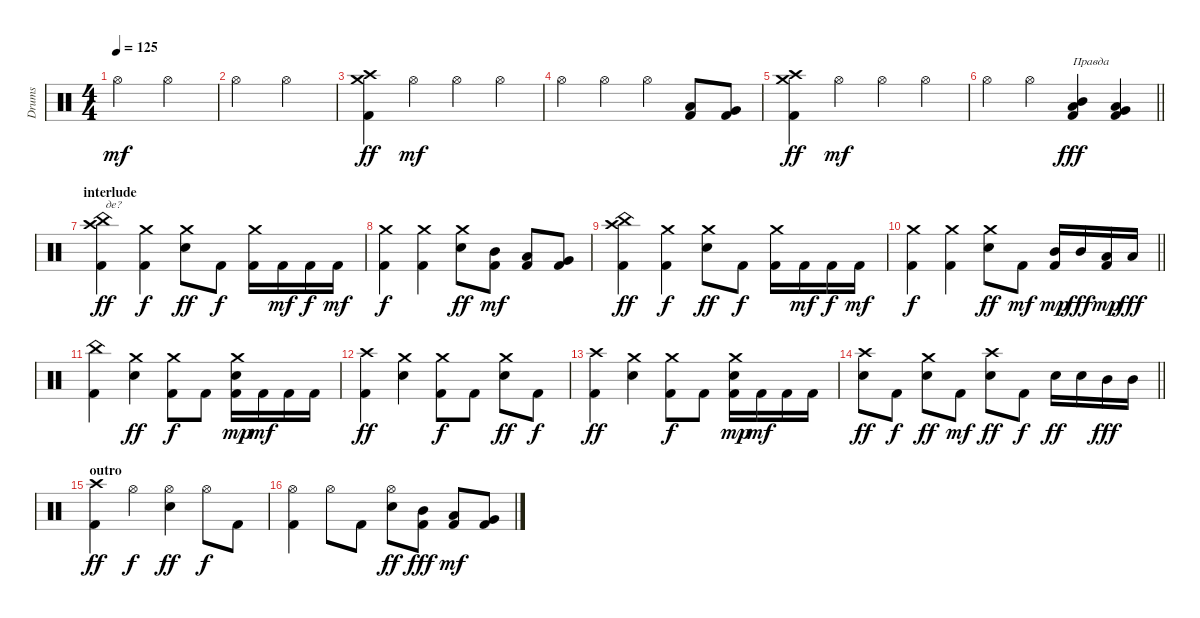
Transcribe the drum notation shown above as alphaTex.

\track ("Drums" "Drums") {instrument percussion}
\staff {score}
\articulation defaults
\ts (4 4)
\tempo 125
\clef neutral
\ks c "Hi-Hat (open)".2{dy mf} "Hi-Hat (open)".2
|
"Hi-Hat (open)".2 "Hi-Hat (open)".2 |
("Crash medium (hit)" "Crash high (hit)" "Kick (hit) 2").4{dy ff} "Hi-Hat (open)".4{dy mf} "Hi-Hat (open)".4 "Hi-Hat (open)".4 |
"Hi-Hat (open)".4 "Hi-Hat (open)".4 "Hi-Hat (open)".4 ("Low Tom (hit)" "Kick (hit) 2").8 ("Very Low Tom (hit)" "Kick (hit) 2").8 |
("Crash medium (hit)" "Crash high (hit)" "Kick (hit) 2").4{dy ff} "Hi-Hat (open)".4{dy mf} "Hi-Hat (open)".4 "Hi-Hat (open)".4 |
\barLineRight lightlight "Hi-Hat (open)".4 "Hi-Hat (open)".4
("Low Tom (hit)" "Mid Tom (hit)" "Kick (hit) 2").4{txt "Правда" dy fff} ("Very Low Tom (hit)" "Low Tom (hit)" "Kick (hit) 2").4 |
\section ("" "interlude")
("China (hit)" "Crash high (hit)" "Kick (hit) 2").4{txt "де?" dy ff} ("Crash medium (hit)" "Kick (hit) 2").4{dy f} ("Crash medium (hit)" "Snare (hit) 2").8{dy ff} "Kick (hit) 2".8{dy f} ("Crash medium (hit)" "Kick (hit) 2").16 "Kick (hit) 2".16{dy mf} "Kick (hit) 2".16{dy f} "Kick (hit) 2".16{dy mf} |
("Crash medium (hit)" "Kick (hit) 2").4{dy f} ("Crash medium (hit)" "Kick (hit) 2").4 ("Crash medium (hit)" "Snare (hit) 2").8{dy ff} ("Mid Tom (hit)" "Kick (hit) 2").8{dy mf} ("Low Tom (hit)" "Kick (hit) 2").8 ("Very Low Tom (hit)" "Kick (hit) 2").8 |
("China (hit)" "Crash high (hit)" "Kick (hit) 2").4{dy ff} ("Crash medium (hit)" "Kick (hit) 2").4{dy f} ("Crash medium (hit)" "Snare (hit) 2").8{dy ff} "Kick (hit) 2".8{dy f} ("Crash medium (hit)" "Kick (hit) 2").16 "Kick (hit) 2".16{dy mf} "Kick (hit) 2".16{dy f} "Kick (hit) 2".16{dy mf} |
\barLineRight lightlight
("Crash medium (hit)" "Kick (hit) 2").4{dy f} ("Crash medium (hit)" "Kick (hit) 2").4 ("Crash medium (hit)" "Snare (hit) 2").8{dy ff} "Kick (hit) 2".8{dy mf} ("Mid Tom (hit)" "Kick (hit) 2").16{dy mp} "Mid Tom (hit)".16{dy fff} ("Low Tom (hit)" "Kick (hit) 2").16{dy mp} "Low Tom (hit)".16{dy fff} |
("China (hit)" "Kick (hit) 2").4 ("Crash medium (hit)" "Snare (hit) 2").4{dy ff} ("Crash medium (hit)" "Kick (hit) 2").8{dy f} "Kick (hit) 2".8 ("Crash medium (hit)" "Snare (hit) 2" "Kick (hit) 2").16{dy mp} "Kick (hit) 2".16{dy mf} "Kick (hit) 2".16 "Kick (hit) 2".16 |
("Crash high (hit)" "Kick (hit) 2").4{dy ff} ("Crash medium (hit)" "Snare (hit) 2").4 ("Crash medium (hit)" "Kick (hit) 2").8{dy f} "Kick (hit) 2".8 ("Crash medium (hit)" "Snare (hit) 2").8{dy ff} "Kick (hit) 2".8{dy f} |
("Crash high (hit)" "Kick (hit) 2").4{dy ff} ("Crash medium (hit)" "Snare (hit) 2").4 ("Crash medium (hit)" "Kick (hit) 2").8{dy f} "Kick (hit) 2".8 ("Crash medium (hit)" "Snare (hit) 2" "Kick (hit) 2").16{dy mp} "Kick (hit) 2".16{dy mf} "Kick (hit) 2".16 "Kick (hit) 2".16 |
\barLineRight lightlight
("Crash high (hit)" "Snare (hit) 2").8{dy ff} "Kick (hit) 2".8{dy f} ("Crash medium (hit)" "Snare (hit) 2").8{dy ff} "Kick (hit) 2".8{dy mf} ("Crash high (hit)" "Snare (hit) 2").8{dy ff} "Kick (hit) 2".8{dy f} "Snare (hit) 2".16{dy ff} "Snare (hit) 2".16 "Mid Tom (hit)".16{dy fff} "Mid Tom (hit)".16 |
\section ("" "outro")
("Crash high (hit)" "Kick (hit) 2").4{dy ff} "Hi-Hat (open)".4{dy f} ("Hi-Hat (open)" "Snare (hit) 2").4{dy ff} "Hi-Hat (open)".8{dy f} "Kick (hit) 2".8 |
("Hi-Hat (open)" "Kick (hit) 2").4 "Hi-Hat (open)".8 "Kick (hit) 2".8 ("Hi-Hat (open)" "Snare (hit) 2").8{dy ff} ("Mid Tom (hit)" "Kick (hit) 2").8{dy fff} ("Low Tom (hit)" "Kick (hit) 2").8{dy mf} ("Very Low Tom (hit)" "Kick (hit) 2").8
